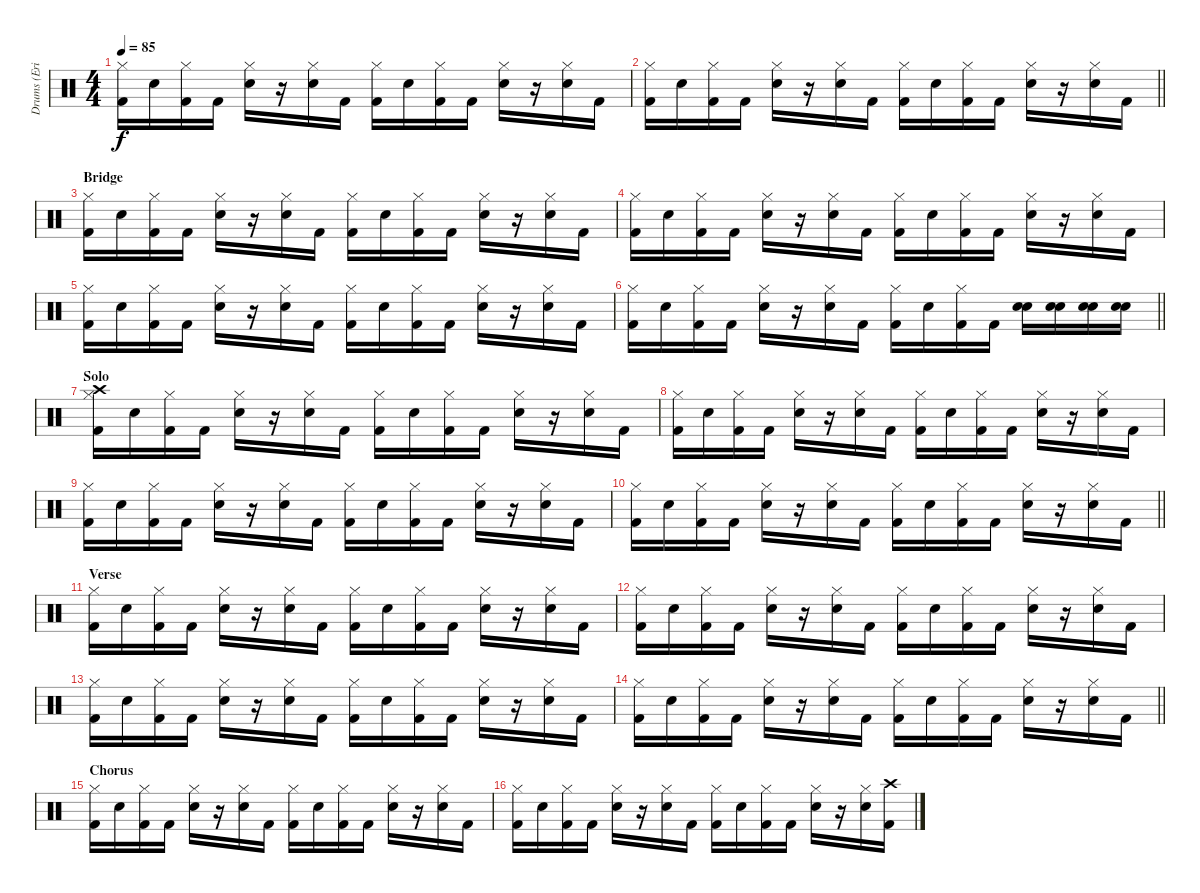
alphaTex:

\track ("Drums (Eric Kretz)" "Drums (Eri") {instrument percussion}
\staff {score}
\articulation defaults
\ts (4 4)
\tempo 85
\clef neutral
\ks c
("Hi-Hat (closed)" "Kick (hit) 2").16{dy f} "Electric Snare (hit)".16 ("Hi-Hat (closed)" "Kick (hit) 2").16 "Kick (hit) 2".16 ("Hi-Hat (closed)" "Electric Snare (hit)").16 r.16 ("Hi-Hat (closed)" "Electric Snare (hit)").16 "Kick (hit) 2".16 ("Hi-Hat (closed)" "Kick (hit) 2").16 "Electric Snare (hit)".16 ("Hi-Hat (closed)" "Kick (hit) 2").16 "Kick (hit) 2".16 ("Hi-Hat (closed)" "Electric Snare (hit)").16 r.16 ("Hi-Hat (closed)" "Electric Snare (hit)").16 "Kick (hit) 2".16 |
\barLineRight lightlight
("Hi-Hat (closed)" "Kick (hit) 2").16 "Electric Snare (hit)".16 ("Hi-Hat (closed)" "Kick (hit) 2").16 "Kick (hit) 2".16 ("Hi-Hat (closed)" "Electric Snare (hit)").16 r.16 ("Hi-Hat (closed)" "Electric Snare (hit)").16 "Kick (hit) 2".16 ("Hi-Hat (closed)" "Kick (hit) 2").16 "Electric Snare (hit)".16 ("Hi-Hat (closed)" "Kick (hit) 2").16 "Kick (hit) 2".16 ("Hi-Hat (closed)" "Electric Snare (hit)").16 r.16 ("Hi-Hat (closed)" "Electric Snare (hit)").16 "Kick (hit) 2".16 |
\section ("" "Bridge")
("Hi-Hat (closed)" "Kick (hit) 2").16 "Electric Snare (hit)".16 ("Hi-Hat (closed)" "Kick (hit) 2").16 "Kick (hit) 2".16 ("Hi-Hat (closed)" "Electric Snare (hit)").16 r.16 ("Hi-Hat (closed)" "Electric Snare (hit)").16 "Kick (hit) 2".16 ("Hi-Hat (closed)" "Kick (hit) 2").16 "Electric Snare (hit)".16 ("Hi-Hat (closed)" "Kick (hit) 2").16 "Kick (hit) 2".16 ("Hi-Hat (closed)" "Electric Snare (hit)").16 r.16 ("Hi-Hat (closed)" "Electric Snare (hit)").16 "Kick (hit) 2".16 |
("Hi-Hat (closed)" "Kick (hit) 2").16 "Electric Snare (hit)".16 ("Hi-Hat (closed)" "Kick (hit) 2").16 "Kick (hit) 2".16 ("Hi-Hat (closed)" "Electric Snare (hit)").16 r.16 ("Hi-Hat (closed)" "Electric Snare (hit)").16 "Kick (hit) 2".16 ("Hi-Hat (closed)" "Kick (hit) 2").16 "Electric Snare (hit)".16 ("Hi-Hat (closed)" "Kick (hit) 2").16 "Kick (hit) 2".16 ("Hi-Hat (closed)" "Electric Snare (hit)").16 r.16 ("Hi-Hat (closed)" "Electric Snare (hit)").16 "Kick (hit) 2".16 |
("Hi-Hat (closed)" "Kick (hit) 2").16 "Electric Snare (hit)".16 ("Hi-Hat (closed)" "Kick (hit) 2").16 "Kick (hit) 2".16 ("Hi-Hat (closed)" "Electric Snare (hit)").16 r.16 ("Hi-Hat (closed)" "Electric Snare (hit)").16 "Kick (hit) 2".16 ("Hi-Hat (closed)" "Kick (hit) 2").16 "Electric Snare (hit)".16 ("Hi-Hat (closed)" "Kick (hit) 2").16 "Kick (hit) 2".16 ("Hi-Hat (closed)" "Electric Snare (hit)").16 r.16 ("Hi-Hat (closed)" "Electric Snare (hit)").16 "Kick (hit) 2".16 |
\barLineRight lightlight
("Hi-Hat (closed)" "Kick (hit) 2").16 "Electric Snare (hit)".16 ("Hi-Hat (closed)" "Kick (hit) 2").16 "Kick (hit) 2".16 ("Hi-Hat (closed)" "Electric Snare (hit)").16 r.16 ("Hi-Hat (closed)" "Electric Snare (hit)").16 "Kick (hit) 2".16 ("Hi-Hat (closed)" "Kick (hit) 2").16 "Electric Snare (hit)".16 ("Hi-Hat (closed)" "Kick (hit) 2").16 "Kick (hit) 2".16 ("Snare (hit) 2" "Electric Snare (hit)").16 ("Snare (hit) 2" "Electric Snare (hit)").16 ("Snare (hit) 2" "Electric Snare (hit)").16 ("Snare (hit) 2" "Electric Snare (hit)").16 |
\section ("" "Solo")
("Hi-Hat (closed)" "Crash high (hit)" "Kick (hit) 2").16 "Electric Snare (hit)".16 ("Hi-Hat (closed)" "Kick (hit) 2").16 "Kick (hit) 2".16 ("Hi-Hat (closed)" "Electric Snare (hit)").16 r.16 ("Hi-Hat (closed)" "Electric Snare (hit)").16 "Kick (hit) 2".16 ("Hi-Hat (closed)" "Kick (hit) 2").16 "Electric Snare (hit)".16 ("Hi-Hat (closed)" "Kick (hit) 2").16 "Kick (hit) 2".16 ("Hi-Hat (closed)" "Electric Snare (hit)").16 r.16 ("Hi-Hat (closed)" "Electric Snare (hit)").16 "Kick (hit) 2".16 |
("Hi-Hat (closed)" "Kick (hit) 2").16 "Electric Snare (hit)".16 ("Hi-Hat (closed)" "Kick (hit) 2").16 "Kick (hit) 2".16 ("Hi-Hat (closed)" "Electric Snare (hit)").16 r.16 ("Hi-Hat (closed)" "Electric Snare (hit)").16 "Kick (hit) 2".16 ("Hi-Hat (closed)" "Kick (hit) 2").16 "Electric Snare (hit)".16 ("Hi-Hat (closed)" "Kick (hit) 2").16 "Kick (hit) 2".16 ("Hi-Hat (closed)" "Electric Snare (hit)").16 r.16 ("Hi-Hat (closed)" "Electric Snare (hit)").16 "Kick (hit) 2".16 |
("Hi-Hat (closed)" "Kick (hit) 2").16 "Electric Snare (hit)".16 ("Hi-Hat (closed)" "Kick (hit) 2").16 "Kick (hit) 2".16 ("Hi-Hat (closed)" "Electric Snare (hit)").16 r.16 ("Hi-Hat (closed)" "Electric Snare (hit)").16 "Kick (hit) 2".16 ("Hi-Hat (closed)" "Kick (hit) 2").16 "Electric Snare (hit)".16 ("Hi-Hat (closed)" "Kick (hit) 2").16 "Kick (hit) 2".16 ("Hi-Hat (closed)" "Electric Snare (hit)").16 r.16 ("Hi-Hat (closed)" "Electric Snare (hit)").16 "Kick (hit) 2".16 |
\barLineRight lightlight
("Hi-Hat (closed)" "Kick (hit) 2").16 "Electric Snare (hit)".16 ("Hi-Hat (closed)" "Kick (hit) 2").16 "Kick (hit) 2".16 ("Hi-Hat (closed)" "Electric Snare (hit)").16 r.16 ("Hi-Hat (closed)" "Electric Snare (hit)").16 "Kick (hit) 2".16 ("Hi-Hat (closed)" "Kick (hit) 2").16 "Electric Snare (hit)".16 ("Hi-Hat (closed)" "Kick (hit) 2").16 "Kick (hit) 2".16 ("Hi-Hat (closed)" "Electric Snare (hit)").16 r.16 ("Hi-Hat (closed)" "Electric Snare (hit)").16 "Kick (hit) 2".16 |
\section ("" "Verse")
("Hi-Hat (closed)" "Kick (hit) 2").16 "Electric Snare (hit)".16 ("Hi-Hat (closed)" "Kick (hit) 2").16 "Kick (hit) 2".16 ("Hi-Hat (closed)" "Electric Snare (hit)").16 r.16 ("Hi-Hat (closed)" "Electric Snare (hit)").16 "Kick (hit) 2".16 ("Hi-Hat (closed)" "Kick (hit) 2").16 "Electric Snare (hit)".16 ("Hi-Hat (closed)" "Kick (hit) 2").16 "Kick (hit) 2".16 ("Hi-Hat (closed)" "Electric Snare (hit)").16 r.16 ("Hi-Hat (closed)" "Electric Snare (hit)").16 "Kick (hit) 2".16 |
("Hi-Hat (closed)" "Kick (hit) 2").16 "Electric Snare (hit)".16 ("Hi-Hat (closed)" "Kick (hit) 2").16 "Kick (hit) 2".16 ("Hi-Hat (closed)" "Electric Snare (hit)").16 r.16 ("Hi-Hat (closed)" "Electric Snare (hit)").16 "Kick (hit) 2".16 ("Hi-Hat (closed)" "Kick (hit) 2").16 "Electric Snare (hit)".16 ("Hi-Hat (closed)" "Kick (hit) 2").16 "Kick (hit) 2".16 ("Hi-Hat (closed)" "Electric Snare (hit)").16 r.16 ("Hi-Hat (closed)" "Electric Snare (hit)").16 "Kick (hit) 2".16 |
("Hi-Hat (closed)" "Kick (hit) 2").16 "Electric Snare (hit)".16 ("Hi-Hat (closed)" "Kick (hit) 2").16 "Kick (hit) 2".16 ("Hi-Hat (closed)" "Electric Snare (hit)").16 r.16 ("Hi-Hat (closed)" "Electric Snare (hit)").16 "Kick (hit) 2".16 ("Hi-Hat (closed)" "Kick (hit) 2").16 "Electric Snare (hit)".16 ("Hi-Hat (closed)" "Kick (hit) 2").16 "Kick (hit) 2".16 ("Hi-Hat (closed)" "Electric Snare (hit)").16 r.16 ("Hi-Hat (closed)" "Electric Snare (hit)").16 "Kick (hit) 2".16 |
\barLineRight lightlight
("Hi-Hat (closed)" "Kick (hit) 2").16 "Electric Snare (hit)".16 ("Hi-Hat (closed)" "Kick (hit) 2").16 "Kick (hit) 2".16 ("Hi-Hat (closed)" "Electric Snare (hit)").16 r.16 ("Hi-Hat (closed)" "Electric Snare (hit)").16 "Kick (hit) 2".16 ("Hi-Hat (closed)" "Kick (hit) 2").16 "Electric Snare (hit)".16 ("Hi-Hat (closed)" "Kick (hit) 2").16 "Kick (hit) 2".16 ("Hi-Hat (closed)" "Electric Snare (hit)").16 r.16 ("Hi-Hat (closed)" "Electric Snare (hit)").16 "Kick (hit) 2".16 |
\section ("" "Chorus")
("Hi-Hat (closed)" "Kick (hit) 2").16 "Electric Snare (hit)".16 ("Hi-Hat (closed)" "Kick (hit) 2").16 "Kick (hit) 2".16 ("Hi-Hat (closed)" "Electric Snare (hit)").16 r.16 ("Hi-Hat (closed)" "Electric Snare (hit)").16 "Kick (hit) 2".16 ("Hi-Hat (closed)" "Kick (hit) 2").16 "Electric Snare (hit)".16 ("Hi-Hat (closed)" "Kick (hit) 2").16 "Kick (hit) 2".16 ("Hi-Hat (closed)" "Electric Snare (hit)").16 r.16 ("Hi-Hat (closed)" "Electric Snare (hit)").16 "Kick (hit) 2".16 |
("Hi-Hat (closed)" "Kick (hit) 2").16 "Electric Snare (hit)".16 ("Hi-Hat (closed)" "Kick (hit) 2").16 "Kick (hit) 2".16 ("Hi-Hat (closed)" "Electric Snare (hit)").16 r.16 ("Hi-Hat (closed)" "Electric Snare (hit)").16 "Kick (hit) 2".16 ("Hi-Hat (closed)" "Kick (hit) 2").16 "Electric Snare (hit)".16 ("Hi-Hat (closed)" "Kick (hit) 2").16 "Kick (hit) 2".16 ("Hi-Hat (closed)" "Electric Snare (hit)").16 r.16 ("Hi-Hat (closed)" "Electric Snare (hit)").16 ("Crash high (hit)" "Kick (hit) 2").16
